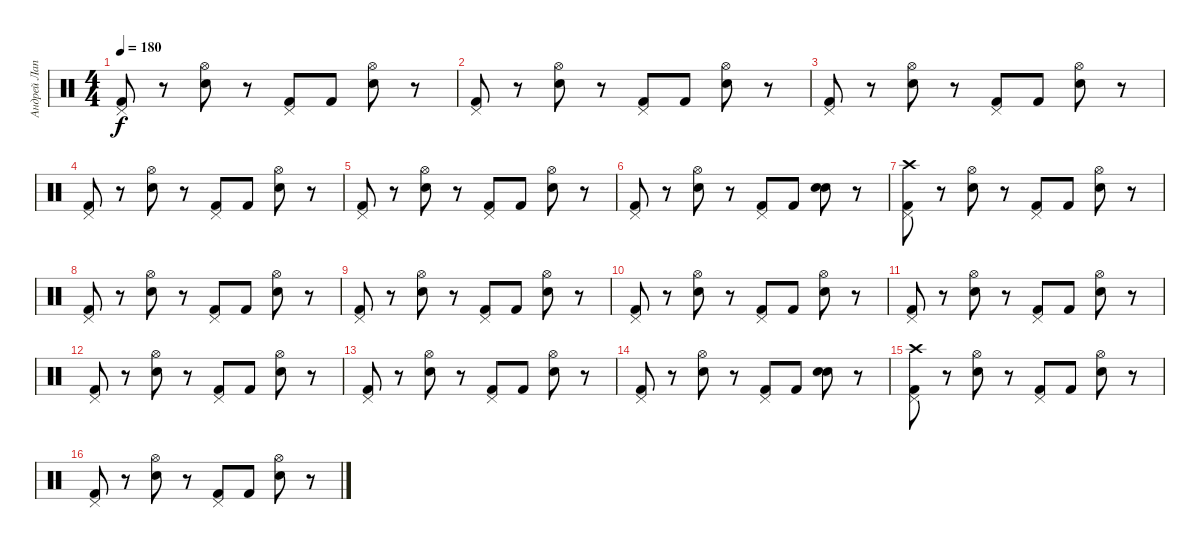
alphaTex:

\track ("Андрей Лаптев" "Андрей Лап") {instrument percussion}
\staff {score}
\articulation defaults
\ts (4 4)
\tempo 180
\clef neutral
\ks c
("Kick (hit) 2" "Pedal Hi-Hat (hit)").8{dy f} r.8 ("Snare (hit) 2" "Hi-Hat (open)").8 r.8 ("Kick (hit) 2" "Pedal Hi-Hat (hit)").8 "Kick (hit) 2".8 ("Snare (hit) 2" "Hi-Hat (open)").8 r.8 |
("Kick (hit) 2" "Pedal Hi-Hat (hit)").8 r.8 ("Snare (hit) 2" "Hi-Hat (open)").8 r.8 ("Kick (hit) 2" "Pedal Hi-Hat (hit)").8 "Kick (hit) 2".8 ("Snare (hit) 2" "Hi-Hat (open)").8 r.8 |
("Kick (hit) 2" "Pedal Hi-Hat (hit)").8 r.8 ("Snare (hit) 2" "Hi-Hat (open)").8 r.8 ("Kick (hit) 2" "Pedal Hi-Hat (hit)").8 "Kick (hit) 2".8 ("Snare (hit) 2" "Hi-Hat (open)").8 r.8 |
("Kick (hit) 2" "Pedal Hi-Hat (hit)").8 r.8 ("Snare (hit) 2" "Hi-Hat (open)").8 r.8 ("Kick (hit) 2" "Pedal Hi-Hat (hit)").8 "Kick (hit) 2".8 ("Snare (hit) 2" "Hi-Hat (open)").8 r.8 |
("Kick (hit) 2" "Pedal Hi-Hat (hit)").8 r.8 ("Snare (hit) 2" "Hi-Hat (open)").8 r.8 ("Kick (hit) 2" "Pedal Hi-Hat (hit)").8 "Kick (hit) 2".8 ("Snare (hit) 2" "Hi-Hat (open)").8 r.8 |
("Kick (hit) 2" "Pedal Hi-Hat (hit)").8 r.8 ("Snare (hit) 2" "Hi-Hat (open)").8 r.8 ("Kick (hit) 2" "Pedal Hi-Hat (hit)").8 "Kick (hit) 2".8 ("Snare (hit) 2" "Electric Snare (hit)").8 r.8 |
("Kick (hit) 2" "Crash high (hit)" "Pedal Hi-Hat (hit)").8 r.8 ("Snare (hit) 2" "Hi-Hat (open)").8 r.8 ("Kick (hit) 2" "Pedal Hi-Hat (hit)").8 "Kick (hit) 2".8 ("Snare (hit) 2" "Hi-Hat (open)").8 r.8 |
("Kick (hit) 2" "Pedal Hi-Hat (hit)").8 r.8 ("Snare (hit) 2" "Hi-Hat (open)").8 r.8 ("Kick (hit) 2" "Pedal Hi-Hat (hit)").8 "Kick (hit) 2".8 ("Snare (hit) 2" "Hi-Hat (open)").8 r.8 |
("Kick (hit) 2" "Pedal Hi-Hat (hit)").8 r.8 ("Snare (hit) 2" "Hi-Hat (open)").8 r.8 ("Kick (hit) 2" "Pedal Hi-Hat (hit)").8 "Kick (hit) 2".8 ("Snare (hit) 2" "Hi-Hat (open)").8 r.8 |
("Kick (hit) 2" "Pedal Hi-Hat (hit)").8 r.8 ("Snare (hit) 2" "Hi-Hat (open)").8 r.8 ("Kick (hit) 2" "Pedal Hi-Hat (hit)").8 "Kick (hit) 2".8 ("Snare (hit) 2" "Hi-Hat (open)").8 r.8 |
("Kick (hit) 2" "Pedal Hi-Hat (hit)").8 r.8 ("Snare (hit) 2" "Hi-Hat (open)").8 r.8 ("Kick (hit) 2" "Pedal Hi-Hat (hit)").8 "Kick (hit) 2".8 ("Snare (hit) 2" "Hi-Hat (open)").8 r.8 |
("Kick (hit) 2" "Pedal Hi-Hat (hit)").8 r.8 ("Snare (hit) 2" "Hi-Hat (open)").8 r.8 ("Kick (hit) 2" "Pedal Hi-Hat (hit)").8 "Kick (hit) 2".8 ("Snare (hit) 2" "Hi-Hat (open)").8 r.8 |
("Kick (hit) 2" "Pedal Hi-Hat (hit)").8 r.8 ("Snare (hit) 2" "Hi-Hat (open)").8 r.8 ("Kick (hit) 2" "Pedal Hi-Hat (hit)").8 "Kick (hit) 2".8 ("Snare (hit) 2" "Hi-Hat (open)").8 r.8 |
("Kick (hit) 2" "Pedal Hi-Hat (hit)").8 r.8 ("Snare (hit) 2" "Hi-Hat (open)").8 r.8 ("Kick (hit) 2" "Pedal Hi-Hat (hit)").8 "Kick (hit) 2".8 ("Snare (hit) 2" "Electric Snare (hit)").8 r.8 |
("Kick (hit) 2" "Crash high (hit)" "Pedal Hi-Hat (hit)").8 r.8 ("Snare (hit) 2" "Hi-Hat (open)").8 r.8 ("Kick (hit) 2" "Pedal Hi-Hat (hit)").8 "Kick (hit) 2".8 ("Snare (hit) 2" "Hi-Hat (open)").8 r.8 |
("Kick (hit) 2" "Pedal Hi-Hat (hit)").8 r.8 ("Snare (hit) 2" "Hi-Hat (open)").8 r.8 ("Kick (hit) 2" "Pedal Hi-Hat (hit)").8 "Kick (hit) 2".8 ("Snare (hit) 2" "Hi-Hat (open)").8 r.8
